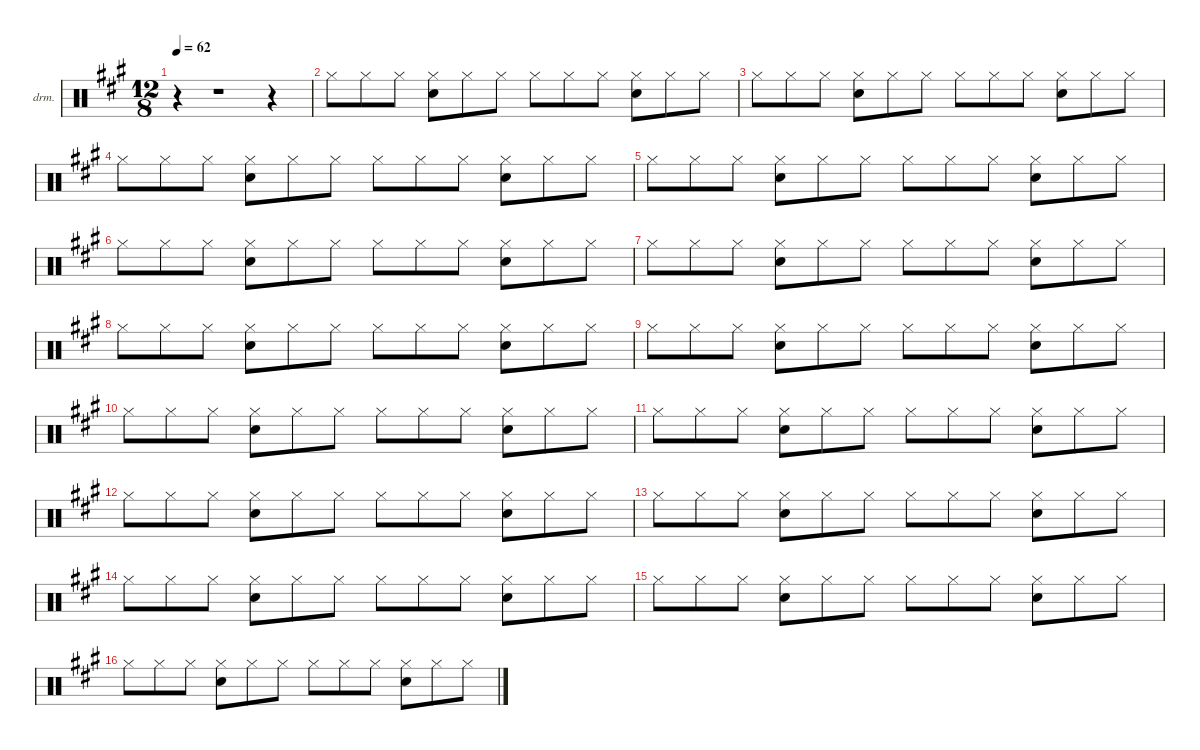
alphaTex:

\defaultSystemsLayout 4
\hideDynamics
\bracketExtendMode nobrackets
\firstSystemTrackNameOrientation horizontal
\otherSystemsTrackNameOrientation horizontal
\track ("Drums" "drm.") {instrument percussion}
\staff {score}
\articulation defaults
\ts (12 8)
\beaming (8 3 3 3 3)
\tempo 62
\clef neutral
\ks a
r.4{dy f} r.1 r.4 |
"Hi-Hat (closed)"{acc forcenatural}.8 "Hi-Hat (closed)"{acc forcenatural}.8 "Hi-Hat (closed)"{acc forcenatural}.8 ("Hi-Hat (closed)"{acc forcenatural} "Snare (hit) 2"{acc forcenatural}).8 "Hi-Hat (closed)"{acc forcenatural}.8 "Hi-Hat (closed)"{acc forcenatural}.8 "Hi-Hat (closed)"{acc forcenatural}.8 "Hi-Hat (closed)"{acc forcenatural}.8 "Hi-Hat (closed)"{acc forcenatural}.8 ("Hi-Hat (closed)"{acc forcenatural} "Snare (hit) 2"{acc forcenatural}).8 "Hi-Hat (closed)"{acc forcenatural}.8 "Hi-Hat (closed)"{acc forcenatural}.8 |
"Hi-Hat (closed)"{acc forcenatural}.8 "Hi-Hat (closed)"{acc forcenatural}.8 "Hi-Hat (closed)"{acc forcenatural}.8 ("Hi-Hat (closed)"{acc forcenatural} "Snare (hit) 2"{acc forcenatural}).8 "Hi-Hat (closed)"{acc forcenatural}.8 "Hi-Hat (closed)"{acc forcenatural}.8 "Hi-Hat (closed)"{acc forcenatural}.8 "Hi-Hat (closed)"{acc forcenatural}.8 "Hi-Hat (closed)"{acc forcenatural}.8 ("Hi-Hat (closed)"{acc forcenatural} "Snare (hit) 2"{acc forcenatural}).8 "Hi-Hat (closed)"{acc forcenatural}.8 "Hi-Hat (closed)"{acc forcenatural}.8 |
"Hi-Hat (closed)"{acc forcenatural}.8 "Hi-Hat (closed)"{acc forcenatural}.8 "Hi-Hat (closed)"{acc forcenatural}.8 ("Hi-Hat (closed)"{acc forcenatural} "Snare (hit) 2"{acc forcenatural}).8 "Hi-Hat (closed)"{acc forcenatural}.8 "Hi-Hat (closed)"{acc forcenatural}.8 "Hi-Hat (closed)"{acc forcenatural}.8 "Hi-Hat (closed)"{acc forcenatural}.8 "Hi-Hat (closed)"{acc forcenatural}.8 ("Hi-Hat (closed)"{acc forcenatural} "Snare (hit) 2"{acc forcenatural}).8 "Hi-Hat (closed)"{acc forcenatural}.8 "Hi-Hat (closed)"{acc forcenatural}.8 |
"Hi-Hat (closed)"{acc forcenatural}.8 "Hi-Hat (closed)"{acc forcenatural}.8 "Hi-Hat (closed)"{acc forcenatural}.8 ("Hi-Hat (closed)"{acc forcenatural} "Snare (hit) 2"{acc forcenatural}).8 "Hi-Hat (closed)"{acc forcenatural}.8 "Hi-Hat (closed)"{acc forcenatural}.8 "Hi-Hat (closed)"{acc forcenatural}.8 "Hi-Hat (closed)"{acc forcenatural}.8 "Hi-Hat (closed)"{acc forcenatural}.8 ("Hi-Hat (closed)"{acc forcenatural} "Snare (hit) 2"{acc forcenatural}).8 "Hi-Hat (closed)"{acc forcenatural}.8 "Hi-Hat (closed)"{acc forcenatural}.8 |
"Hi-Hat (closed)"{acc forcenatural}.8 "Hi-Hat (closed)"{acc forcenatural}.8 "Hi-Hat (closed)"{acc forcenatural}.8 ("Hi-Hat (closed)"{acc forcenatural} "Snare (hit) 2"{acc forcenatural}).8 "Hi-Hat (closed)"{acc forcenatural}.8 "Hi-Hat (closed)"{acc forcenatural}.8 "Hi-Hat (closed)"{acc forcenatural}.8 "Hi-Hat (closed)"{acc forcenatural}.8 "Hi-Hat (closed)"{acc forcenatural}.8 ("Hi-Hat (closed)"{acc forcenatural} "Snare (hit) 2"{acc forcenatural}).8 "Hi-Hat (closed)"{acc forcenatural}.8 "Hi-Hat (closed)"{acc forcenatural}.8 |
"Hi-Hat (closed)"{acc forcenatural}.8 "Hi-Hat (closed)"{acc forcenatural}.8 "Hi-Hat (closed)"{acc forcenatural}.8 ("Hi-Hat (closed)"{acc forcenatural} "Snare (hit) 2"{acc forcenatural}).8 "Hi-Hat (closed)"{acc forcenatural}.8 "Hi-Hat (closed)"{acc forcenatural}.8 "Hi-Hat (closed)"{acc forcenatural}.8 "Hi-Hat (closed)"{acc forcenatural}.8 "Hi-Hat (closed)"{acc forcenatural}.8 ("Hi-Hat (closed)"{acc forcenatural} "Snare (hit) 2"{acc forcenatural}).8 "Hi-Hat (closed)"{acc forcenatural}.8 "Hi-Hat (closed)"{acc forcenatural}.8 |
"Hi-Hat (closed)"{acc forcenatural}.8 "Hi-Hat (closed)"{acc forcenatural}.8 "Hi-Hat (closed)"{acc forcenatural}.8 ("Hi-Hat (closed)"{acc forcenatural} "Snare (hit) 2"{acc forcenatural}).8 "Hi-Hat (closed)"{acc forcenatural}.8 "Hi-Hat (closed)"{acc forcenatural}.8 "Hi-Hat (closed)"{acc forcenatural}.8 "Hi-Hat (closed)"{acc forcenatural}.8 "Hi-Hat (closed)"{acc forcenatural}.8 ("Hi-Hat (closed)"{acc forcenatural} "Snare (hit) 2"{acc forcenatural}).8 "Hi-Hat (closed)"{acc forcenatural}.8 "Hi-Hat (closed)"{acc forcenatural}.8 |
"Hi-Hat (closed)"{acc forcenatural}.8 "Hi-Hat (closed)"{acc forcenatural}.8 "Hi-Hat (closed)"{acc forcenatural}.8 ("Hi-Hat (closed)"{acc forcenatural} "Snare (hit) 2"{acc forcenatural}).8 "Hi-Hat (closed)"{acc forcenatural}.8 "Hi-Hat (closed)"{acc forcenatural}.8 "Hi-Hat (closed)"{acc forcenatural}.8 "Hi-Hat (closed)"{acc forcenatural}.8 "Hi-Hat (closed)"{acc forcenatural}.8 ("Hi-Hat (closed)"{acc forcenatural} "Snare (hit) 2"{acc forcenatural}).8 "Hi-Hat (closed)"{acc forcenatural}.8 "Hi-Hat (closed)"{acc forcenatural}.8 |
"Hi-Hat (closed)"{acc forcenatural}.8 "Hi-Hat (closed)"{acc forcenatural}.8 "Hi-Hat (closed)"{acc forcenatural}.8 ("Hi-Hat (closed)"{acc forcenatural} "Snare (hit) 2"{acc forcenatural}).8 "Hi-Hat (closed)"{acc forcenatural}.8 "Hi-Hat (closed)"{acc forcenatural}.8 "Hi-Hat (closed)"{acc forcenatural}.8 "Hi-Hat (closed)"{acc forcenatural}.8 "Hi-Hat (closed)"{acc forcenatural}.8 ("Hi-Hat (closed)"{acc forcenatural} "Snare (hit) 2"{acc forcenatural}).8 "Hi-Hat (closed)"{acc forcenatural}.8 "Hi-Hat (closed)"{acc forcenatural}.8 |
"Hi-Hat (closed)"{acc forcenatural}.8 "Hi-Hat (closed)"{acc forcenatural}.8 "Hi-Hat (closed)"{acc forcenatural}.8 ("Hi-Hat (closed)"{acc forcenatural} "Snare (hit) 2"{acc forcenatural}).8 "Hi-Hat (closed)"{acc forcenatural}.8 "Hi-Hat (closed)"{acc forcenatural}.8 "Hi-Hat (closed)"{acc forcenatural}.8 "Hi-Hat (closed)"{acc forcenatural}.8 "Hi-Hat (closed)"{acc forcenatural}.8 ("Hi-Hat (closed)"{acc forcenatural} "Snare (hit) 2"{acc forcenatural}).8 "Hi-Hat (closed)"{acc forcenatural}.8 "Hi-Hat (closed)"{acc forcenatural}.8 |
"Hi-Hat (closed)"{acc forcenatural}.8 "Hi-Hat (closed)"{acc forcenatural}.8 "Hi-Hat (closed)"{acc forcenatural}.8 ("Hi-Hat (closed)"{acc forcenatural} "Snare (hit) 2"{acc forcenatural}).8 "Hi-Hat (closed)"{acc forcenatural}.8 "Hi-Hat (closed)"{acc forcenatural}.8 "Hi-Hat (closed)"{acc forcenatural}.8 "Hi-Hat (closed)"{acc forcenatural}.8 "Hi-Hat (closed)"{acc forcenatural}.8 ("Hi-Hat (closed)"{acc forcenatural} "Snare (hit) 2"{acc forcenatural}).8 "Hi-Hat (closed)"{acc forcenatural}.8 "Hi-Hat (closed)"{acc forcenatural}.8 |
"Hi-Hat (closed)"{acc forcenatural}.8 "Hi-Hat (closed)"{acc forcenatural}.8 "Hi-Hat (closed)"{acc forcenatural}.8 ("Hi-Hat (closed)"{acc forcenatural} "Snare (hit) 2"{acc forcenatural}).8 "Hi-Hat (closed)"{acc forcenatural}.8 "Hi-Hat (closed)"{acc forcenatural}.8 "Hi-Hat (closed)"{acc forcenatural}.8 "Hi-Hat (closed)"{acc forcenatural}.8 "Hi-Hat (closed)"{acc forcenatural}.8 ("Hi-Hat (closed)"{acc forcenatural} "Snare (hit) 2"{acc forcenatural}).8 "Hi-Hat (closed)"{acc forcenatural}.8 "Hi-Hat (closed)"{acc forcenatural}.8 |
"Hi-Hat (closed)"{acc forcenatural}.8 "Hi-Hat (closed)"{acc forcenatural}.8 "Hi-Hat (closed)"{acc forcenatural}.8 ("Hi-Hat (closed)"{acc forcenatural} "Snare (hit) 2"{acc forcenatural}).8 "Hi-Hat (closed)"{acc forcenatural}.8 "Hi-Hat (closed)"{acc forcenatural}.8 "Hi-Hat (closed)"{acc forcenatural}.8 "Hi-Hat (closed)"{acc forcenatural}.8 "Hi-Hat (closed)"{acc forcenatural}.8 ("Hi-Hat (closed)"{acc forcenatural} "Snare (hit) 2"{acc forcenatural}).8 "Hi-Hat (closed)"{acc forcenatural}.8 "Hi-Hat (closed)"{acc forcenatural}.8 |
"Hi-Hat (closed)"{acc forcenatural}.8 "Hi-Hat (closed)"{acc forcenatural}.8 "Hi-Hat (closed)"{acc forcenatural}.8 ("Hi-Hat (closed)"{acc forcenatural} "Snare (hit) 2"{acc forcenatural}).8 "Hi-Hat (closed)"{acc forcenatural}.8 "Hi-Hat (closed)"{acc forcenatural}.8 "Hi-Hat (closed)"{acc forcenatural}.8 "Hi-Hat (closed)"{acc forcenatural}.8 "Hi-Hat (closed)"{acc forcenatural}.8 ("Hi-Hat (closed)"{acc forcenatural} "Snare (hit) 2"{acc forcenatural}).8 "Hi-Hat (closed)"{acc forcenatural}.8 "Hi-Hat (closed)"{acc forcenatural}.8 |
"Hi-Hat (closed)"{acc forcenatural}.8 "Hi-Hat (closed)"{acc forcenatural}.8 "Hi-Hat (closed)"{acc forcenatural}.8 ("Hi-Hat (closed)"{acc forcenatural} "Snare (hit) 2"{acc forcenatural}).8 "Hi-Hat (closed)"{acc forcenatural}.8 "Hi-Hat (closed)"{acc forcenatural}.8 "Hi-Hat (closed)"{acc forcenatural}.8 "Hi-Hat (closed)"{acc forcenatural}.8 "Hi-Hat (closed)"{acc forcenatural}.8 ("Hi-Hat (closed)"{acc forcenatural} "Snare (hit) 2"{acc forcenatural}).8 "Hi-Hat (closed)"{acc forcenatural}.8 "Hi-Hat (closed)"{acc forcenatural}.8
